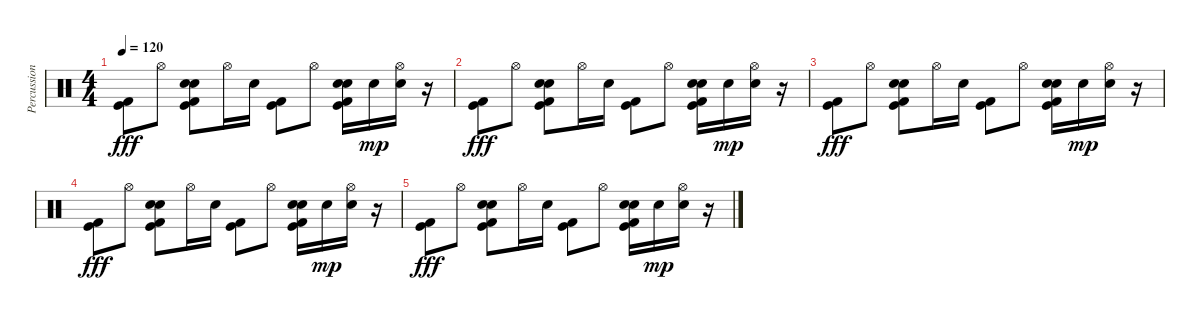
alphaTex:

\track ("Percussion" "Percussion") {instrument percussion}
\staff {score}
\articulation defaults
\ts (4 4)
\tempo 120
\clef neutral
\ks c
("Kick (hit) 2" "Kick (hit)").8{dy fff volume 4} "Hi-Hat (open)".8 ("Kick (hit) 2" "Kick (hit)" "Hand Clap (hit)" "Electric Snare (hit)").8 "Hi-Hat (open)".16 "Electric Snare (hit)".16 ("Kick (hit) 2" "Kick (hit)").8 "Hi-Hat (open)".8 ("Kick (hit) 2" "Kick (hit)" "Hand Clap (hit)" "Electric Snare (hit)").16 "Electric Snare (hit)".16{dy mp} ("Hi-Hat (open)" "Electric Snare (hit)").16 r.16 |
("Kick (hit) 2" "Kick (hit)").8{dy fff volume 1} "Hi-Hat (open)".8 ("Kick (hit) 2" "Kick (hit)" "Hand Clap (hit)" "Electric Snare (hit)").8 "Hi-Hat (open)".16 "Electric Snare (hit)".16 ("Kick (hit) 2" "Kick (hit)").8 "Hi-Hat (open)".8 ("Kick (hit) 2" "Kick (hit)" "Hand Clap (hit)" "Electric Snare (hit)").16 "Electric Snare (hit)".16{dy mp} ("Hi-Hat (open)" "Electric Snare (hit)").16 r.16 |
("Kick (hit) 2" "Kick (hit)").8{dy fff volume 0} "Hi-Hat (open)".8 ("Kick (hit) 2" "Kick (hit)" "Hand Clap (hit)" "Electric Snare (hit)").8 "Hi-Hat (open)".16 "Electric Snare (hit)".16 ("Kick (hit) 2" "Kick (hit)").8 "Hi-Hat (open)".8 ("Kick (hit) 2" "Kick (hit)" "Hand Clap (hit)" "Electric Snare (hit)").16 "Electric Snare (hit)".16{dy mp} ("Hi-Hat (open)" "Electric Snare (hit)").16 r.16 |
("Kick (hit) 2" "Kick (hit)").8{dy fff} "Hi-Hat (open)".8 ("Kick (hit) 2" "Kick (hit)" "Hand Clap (hit)" "Electric Snare (hit)").8 "Hi-Hat (open)".16 "Electric Snare (hit)".16 ("Kick (hit) 2" "Kick (hit)").8 "Hi-Hat (open)".8 ("Kick (hit) 2" "Kick (hit)" "Hand Clap (hit)" "Electric Snare (hit)").16 "Electric Snare (hit)".16{dy mp} ("Hi-Hat (open)" "Electric Snare (hit)").16 r.16 |
("Kick (hit) 2" "Kick (hit)").8{dy fff} "Hi-Hat (open)".8 ("Kick (hit) 2" "Kick (hit)" "Hand Clap (hit)" "Electric Snare (hit)").8 "Hi-Hat (open)".16 "Electric Snare (hit)".16 ("Kick (hit) 2" "Kick (hit)").8 "Hi-Hat (open)".8 ("Kick (hit) 2" "Kick (hit)" "Hand Clap (hit)" "Electric Snare (hit)").16 "Electric Snare (hit)".16{dy mp} ("Hi-Hat (open)" "Electric Snare (hit)").16 r.16
